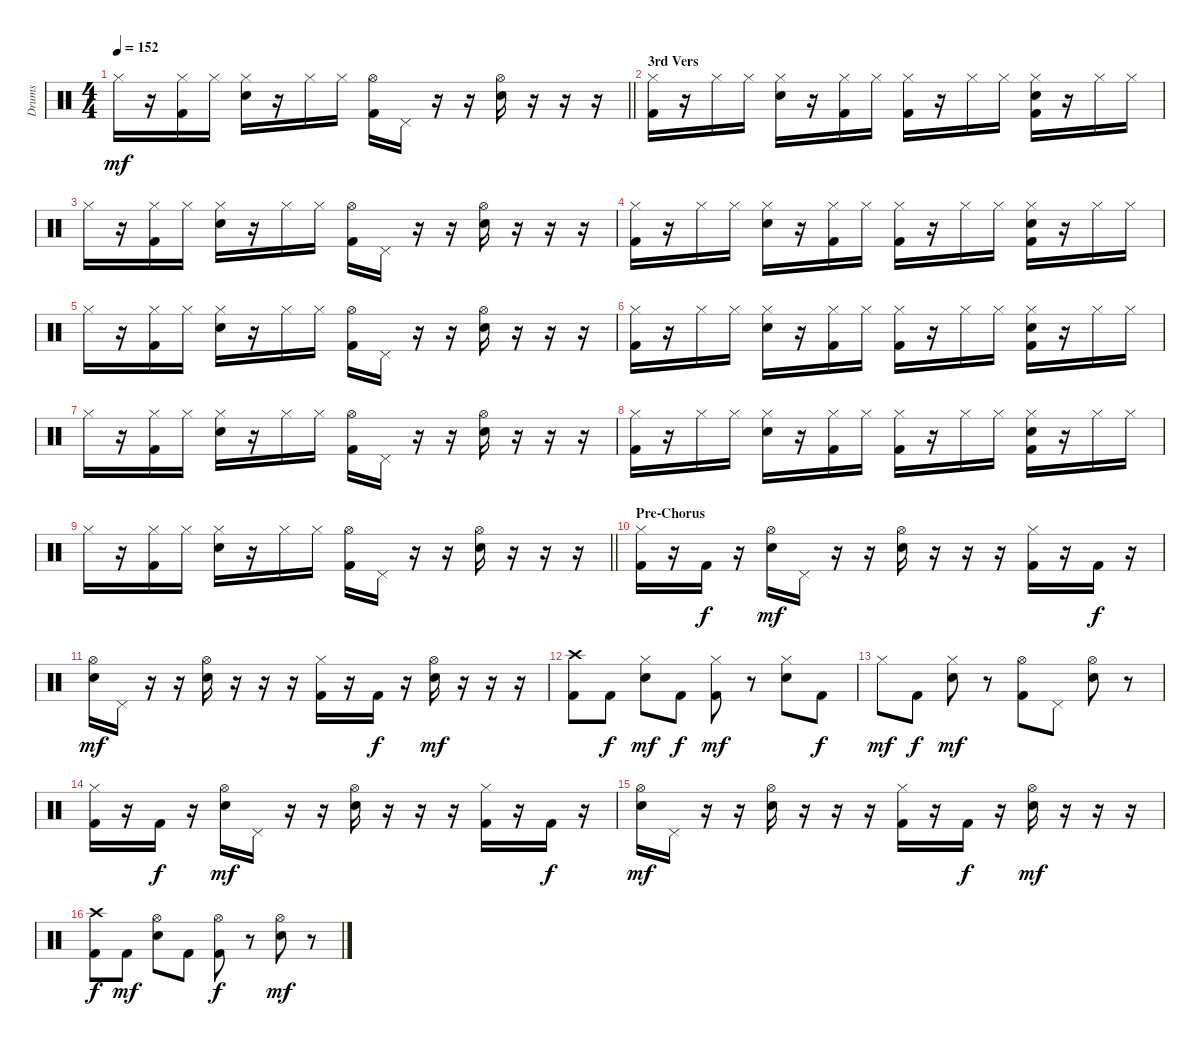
\track ("Drums" "Drums") {instrument percussion}
\staff {score}
\articulation defaults
\ts (4 4)
\tempo 152
\clef neutral
\barLineRight lightlight
\ks c "Hi-Hat (closed)".16{dy mf}
r.16 ("Hi-Hat (closed)" "Kick (hit) 2").16 "Hi-Hat (closed)".16 ("Hi-Hat (closed)" "Snare (hit) 2").16 r.16 "Hi-Hat (closed)".16 "Hi-Hat (closed)".16 ("Hi-Hat (open)" "Kick (hit) 2").16 "Pedal Hi-Hat (hit)".16 r.16 r.16 ("Hi-Hat (open)" "Snare (hit) 2").16 r.16 r.16 r.16 |
\section ("" "3rd Vers")
("Hi-Hat (closed)" "Kick (hit) 2").16 r.16 "Hi-Hat (closed)".16 "Hi-Hat (closed)".16 ("Hi-Hat (closed)" "Snare (hit) 2").16 r.16 ("Hi-Hat (closed)" "Kick (hit) 2").16 "Hi-Hat (closed)".16 ("Hi-Hat (closed)" "Kick (hit) 2").16 r.16 "Hi-Hat (closed)".16 "Hi-Hat (closed)".16 ("Hi-Hat (closed)" "Snare (hit) 2" "Kick (hit) 2").16 r.16 "Hi-Hat (closed)".16 "Hi-Hat (closed)".16 |
"Hi-Hat (closed)".16 r.16 ("Hi-Hat (closed)" "Kick (hit) 2").16 "Hi-Hat (closed)".16 ("Hi-Hat (closed)" "Snare (hit) 2").16 r.16 "Hi-Hat (closed)".16 "Hi-Hat (closed)".16 ("Hi-Hat (open)" "Kick (hit) 2").16 "Pedal Hi-Hat (hit)".16 r.16 r.16 ("Hi-Hat (open)" "Snare (hit) 2").16 r.16 r.16 r.16 |
("Hi-Hat (closed)" "Kick (hit) 2").16 r.16 "Hi-Hat (closed)".16 "Hi-Hat (closed)".16 ("Hi-Hat (closed)" "Snare (hit) 2").16 r.16 ("Hi-Hat (closed)" "Kick (hit) 2").16 "Hi-Hat (closed)".16 ("Hi-Hat (closed)" "Kick (hit) 2").16 r.16 "Hi-Hat (closed)".16 "Hi-Hat (closed)".16 ("Hi-Hat (closed)" "Snare (hit) 2" "Kick (hit) 2").16 r.16 "Hi-Hat (closed)".16 "Hi-Hat (closed)".16 |
"Hi-Hat (closed)".16 r.16 ("Hi-Hat (closed)" "Kick (hit) 2").16 "Hi-Hat (closed)".16 ("Hi-Hat (closed)" "Snare (hit) 2").16 r.16 "Hi-Hat (closed)".16 "Hi-Hat (closed)".16 ("Hi-Hat (open)" "Kick (hit) 2").16 "Pedal Hi-Hat (hit)".16 r.16 r.16 ("Hi-Hat (open)" "Snare (hit) 2").16 r.16 r.16 r.16 |
("Hi-Hat (closed)" "Kick (hit) 2").16 r.16 "Hi-Hat (closed)".16 "Hi-Hat (closed)".16 ("Hi-Hat (closed)" "Snare (hit) 2").16 r.16 ("Hi-Hat (closed)" "Kick (hit) 2").16 "Hi-Hat (closed)".16 ("Hi-Hat (closed)" "Kick (hit) 2").16 r.16 "Hi-Hat (closed)".16 "Hi-Hat (closed)".16 ("Hi-Hat (closed)" "Snare (hit) 2" "Kick (hit) 2").16 r.16 "Hi-Hat (closed)".16 "Hi-Hat (closed)".16 |
"Hi-Hat (closed)".16 r.16 ("Hi-Hat (closed)" "Kick (hit) 2").16 "Hi-Hat (closed)".16 ("Hi-Hat (closed)" "Snare (hit) 2").16 r.16 "Hi-Hat (closed)".16 "Hi-Hat (closed)".16 ("Hi-Hat (open)" "Kick (hit) 2").16 "Pedal Hi-Hat (hit)".16 r.16 r.16 ("Hi-Hat (open)" "Snare (hit) 2").16 r.16 r.16 r.16 |
("Hi-Hat (closed)" "Kick (hit) 2").16 r.16 "Hi-Hat (closed)".16 "Hi-Hat (closed)".16 ("Hi-Hat (closed)" "Snare (hit) 2").16 r.16 ("Hi-Hat (closed)" "Kick (hit) 2").16 "Hi-Hat (closed)".16 ("Hi-Hat (closed)" "Kick (hit) 2").16 r.16 "Hi-Hat (closed)".16 "Hi-Hat (closed)".16 ("Hi-Hat (closed)" "Snare (hit) 2" "Kick (hit) 2").16 r.16 "Hi-Hat (closed)".16 "Hi-Hat (closed)".16 |
\barLineRight lightlight "Hi-Hat (closed)".16
r.16 ("Hi-Hat (closed)" "Kick (hit) 2").16 "Hi-Hat (closed)".16 ("Hi-Hat (closed)" "Snare (hit) 2").16 r.16 "Hi-Hat (closed)".16 "Hi-Hat (closed)".16 ("Hi-Hat (open)" "Kick (hit) 2").16 "Pedal Hi-Hat (hit)".16 r.16 r.16 ("Hi-Hat (open)" "Snare (hit) 2").16 r.16 r.16 r.16 |
\section ("" "Pre-Chorus")
("Hi-Hat (closed)" "Kick (hit) 2").16 r.16 "Kick (hit) 2".16{dy f} r.16 ("Hi-Hat (open)" "Snare (hit) 2").16{dy mf} "Pedal Hi-Hat (hit)".16 r.16 r.16 ("Hi-Hat (open)" "Snare (hit) 2").16 r.16 r.16 r.16 ("Hi-Hat (closed)" "Kick (hit) 2").16 r.16 "Kick (hit) 2".16{dy f} r.16 |
("Hi-Hat (open)" "Snare (hit) 2").16{dy mf} "Pedal Hi-Hat (hit)".16 r.16 r.16 ("Hi-Hat (open)" "Snare (hit) 2").16 r.16 r.16 r.16 ("Hi-Hat (closed)" "Kick (hit) 2").16 r.16 "Kick (hit) 2".16{dy f} r.16 ("Hi-Hat (open)" "Snare (hit) 2").16{dy mf} r.16 r.16 r.16 |
("Crash high (hit)" "Kick (hit) 2").8 "Kick (hit) 2".8{dy f} ("Hi-Hat (closed)" "Snare (hit) 2").8{dy mf} "Kick (hit) 2".8{dy f} ("Hi-Hat (closed)" "Kick (hit) 2").8{dy mf} r.8 ("Hi-Hat (closed)" "Snare (hit) 2").8 "Kick (hit) 2".8{dy f} |
"Hi-Hat (closed)".8{dy mf} "Kick (hit) 2".8{dy f} ("Hi-Hat (closed)" "Snare (hit) 2").8{dy mf} r.8 ("Hi-Hat (open)" "Kick (hit) 2").8 "Pedal Hi-Hat (hit)".8 ("Hi-Hat (open)" "Snare (hit) 2").8 r.8 |
("Hi-Hat (closed)" "Kick (hit) 2").16 r.16 "Kick (hit) 2".16{dy f} r.16 ("Hi-Hat (open)" "Snare (hit) 2").16{dy mf} "Pedal Hi-Hat (hit)".16 r.16 r.16 ("Hi-Hat (open)" "Snare (hit) 2").16 r.16 r.16 r.16 ("Hi-Hat (closed)" "Kick (hit) 2").16 r.16 "Kick (hit) 2".16{dy f} r.16 |
("Hi-Hat (open)" "Snare (hit) 2").16{dy mf} "Pedal Hi-Hat (hit)".16 r.16 r.16 ("Hi-Hat (open)" "Snare (hit) 2").16 r.16 r.16 r.16 ("Hi-Hat (closed)" "Kick (hit) 2").16 r.16 "Kick (hit) 2".16{dy f} r.16 ("Hi-Hat (open)" "Snare (hit) 2").16{dy mf} r.16 r.16 r.16 |
("Crash high (hit)" "Kick (hit) 2").8{dy f} "Kick (hit) 2".8{dy mf} ("Hi-Hat (open)" "Snare (hit) 2").8 "Kick (hit) 2".8 ("Hi-Hat (open)" "Kick (hit) 2").8{dy f} r.8 ("Hi-Hat (open)" "Snare (hit) 2").8{dy mf} r.8
